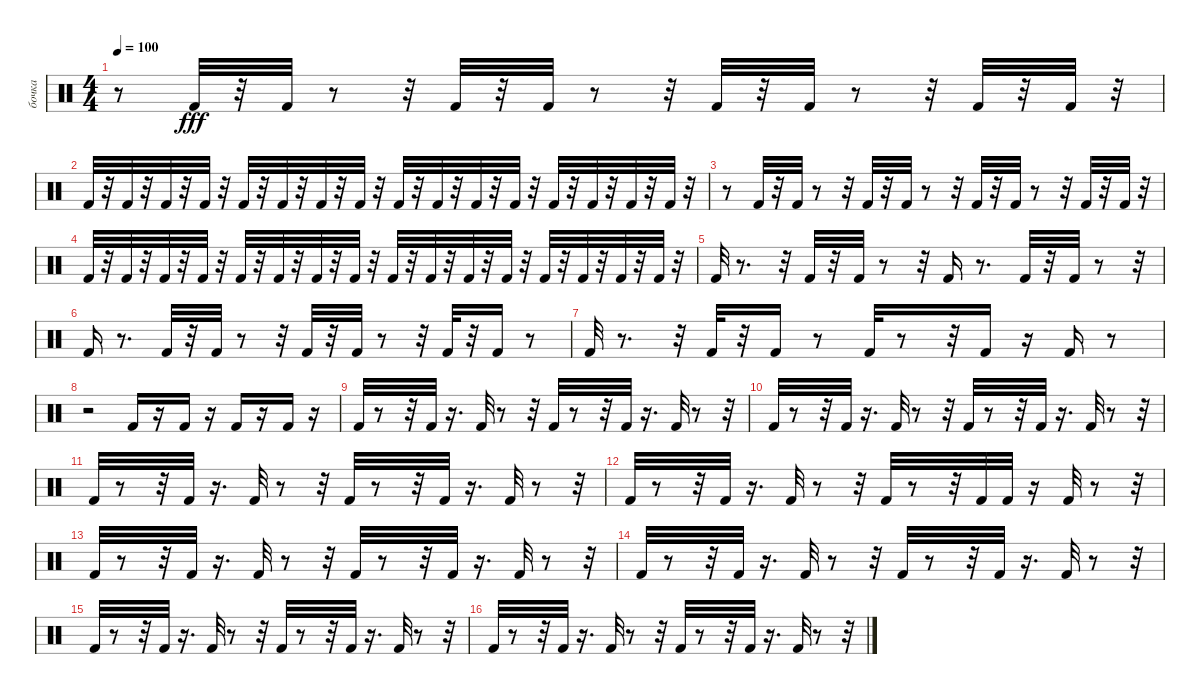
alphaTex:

\track ("бочка" "бочка") {instrument percussion}
\staff {score}
\articulation defaults
\ts (4 4)
\tempo 100
\clef neutral
\ks c
r.8{dy fff} "Kick (hit) 2".32 r.32 "Kick (hit) 2".32 r.8 r.32 "Kick (hit) 2".32 r.32 "Kick (hit) 2".32 r.8 r.32 "Kick (hit) 2".32 r.32 "Kick (hit) 2".32 r.8 r.32 "Kick (hit) 2".32 r.32 "Kick (hit) 2".32 r.32 |
"Kick (hit) 2".32 r.32 "Kick (hit) 2".32 r.32 "Kick (hit) 2".32 r.32 "Kick (hit) 2".32 r.32 "Kick (hit) 2".32 r.32 "Kick (hit) 2".32 r.32 "Kick (hit) 2".32 r.32 "Kick (hit) 2".32 r.32 "Kick (hit) 2".32 r.32 "Kick (hit) 2".32 r.32 "Kick (hit) 2".32 r.32 "Kick (hit) 2".32 r.32 "Kick (hit) 2".32 r.32 "Kick (hit) 2".32 r.32 "Kick (hit) 2".32 r.32 "Kick (hit) 2".32 r.32 |
r.8 "Kick (hit) 2".32 r.32 "Kick (hit) 2".32 r.8 r.32 "Kick (hit) 2".32 r.32 "Kick (hit) 2".32 r.8 r.32 "Kick (hit) 2".32 r.32 "Kick (hit) 2".32 r.8 r.32 "Kick (hit) 2".32 r.32 "Kick (hit) 2".32 r.32 |
"Kick (hit) 2".32 r.32 "Kick (hit) 2".32 r.32 "Kick (hit) 2".32 r.32 "Kick (hit) 2".32 r.32 "Kick (hit) 2".32 r.32 "Kick (hit) 2".32 r.32 "Kick (hit) 2".32 r.32 "Kick (hit) 2".32 r.32 "Kick (hit) 2".32 r.32 "Kick (hit) 2".32 r.32 "Kick (hit) 2".32 r.32 "Kick (hit) 2".32 r.32 "Kick (hit) 2".32 r.32 "Kick (hit) 2".32 r.32 "Kick (hit) 2".32 r.32 "Kick (hit) 2".32 r.32 |
"Kick (hit) 2".32 r.8{d} r.32 "Kick (hit) 2".32 r.32 "Kick (hit) 2".32 r.8 r.32 "Kick (hit) 2".16 r.8{d} "Kick (hit) 2".32 r.32 "Kick (hit) 2".32 r.8 r.32 |
"Kick (hit) 2".16 r.8{d} "Kick (hit) 2".32 r.32 "Kick (hit) 2".32 r.8 r.32 "Kick (hit) 2".32 r.32 "Kick (hit) 2".32 r.8 r.32 "Kick (hit) 2".32 r.32 "Kick (hit) 2".16 r.8 |
"Kick (hit) 2".32 r.8{d} r.32 "Kick (hit) 2".32 r.32 "Kick (hit) 2".16 r.8 "Kick (hit) 2".32 r.8 r.32 "Kick (hit) 2".16 r.16 "Kick (hit) 2".16 r.8 |
r.2 "Kick (hit) 2".16 r.16 "Kick (hit) 2".16 r.16 "Kick (hit) 2".16 r.16 "Kick (hit) 2".16 r.16 |
"Kick (hit) 2".32 r.8 r.32 "Kick (hit) 2".32 r.16{d} "Kick (hit) 2".32 r.8 r.32 "Kick (hit) 2".32 r.8 r.32 "Kick (hit) 2".32 r.16{d} "Kick (hit) 2".32 r.8 r.32 |
"Kick (hit) 2".32 r.8 r.32 "Kick (hit) 2".32 r.16{d} "Kick (hit) 2".32 r.8 r.32 "Kick (hit) 2".32 r.8 r.32 "Kick (hit) 2".32 r.16{d} "Kick (hit) 2".32 r.8 r.32 |
"Kick (hit) 2".32 r.8 r.32 "Kick (hit) 2".32 r.16{d} "Kick (hit) 2".32 r.8 r.32 "Kick (hit) 2".32 r.8 r.32 "Kick (hit) 2".32 r.16{d} "Kick (hit) 2".32 r.8 r.32 |
"Kick (hit) 2".32 r.8 r.32 "Kick (hit) 2".32 r.16{d} "Kick (hit) 2".32 r.8 r.32 "Kick (hit) 2".32 r.8 r.32 "Kick (hit) 2".32 "Kick (hit) 2".32 r.16 "Kick (hit) 2".32 r.8 r.32 |
"Kick (hit) 2".32 r.8 r.32 "Kick (hit) 2".32 r.16{d} "Kick (hit) 2".32 r.8 r.32 "Kick (hit) 2".32 r.8 r.32 "Kick (hit) 2".32 r.16{d} "Kick (hit) 2".32 r.8 r.32 |
"Kick (hit) 2".32 r.8 r.32 "Kick (hit) 2".32 r.16{d} "Kick (hit) 2".32 r.8 r.32 "Kick (hit) 2".32 r.8 r.32 "Kick (hit) 2".32 r.16{d} "Kick (hit) 2".32 r.8 r.32 |
"Kick (hit) 2".32 r.8 r.32 "Kick (hit) 2".32 r.16{d} "Kick (hit) 2".32 r.8 r.32 "Kick (hit) 2".32 r.8 r.32 "Kick (hit) 2".32 r.16{d} "Kick (hit) 2".32 r.8 r.32 |
"Kick (hit) 2".32 r.8 r.32 "Kick (hit) 2".32 r.16{d} "Kick (hit) 2".32 r.8 r.32 "Kick (hit) 2".32 r.8 r.32 "Kick (hit) 2".32 r.16{d} "Kick (hit) 2".32 r.8 r.32
